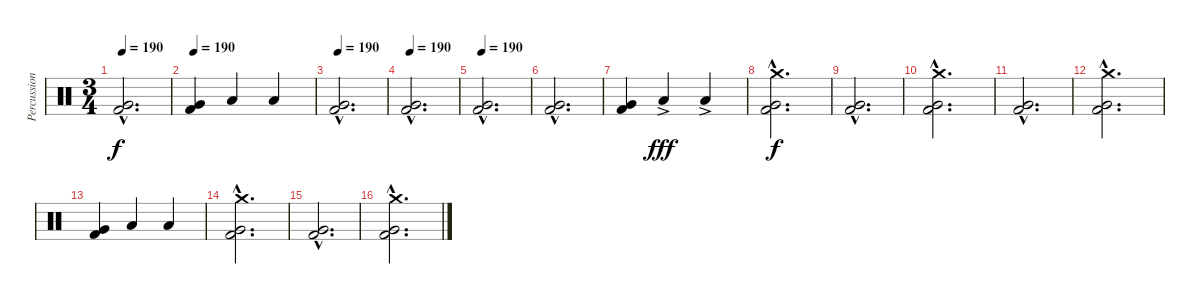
\track ("Percussion" "Percussion") {instrument percussion}
\staff {score}
\articulation defaults
\ts (3 4)
\tempo 190
\clef neutral
\ks c
("Very Low Tom (hit)"{hac} "Kick (hit) 2"{hac}).2{d dy f} |
\tempo 190
("Very Low Tom (hit)" "Kick (hit) 2").4 "Low Floor Tom (hit)".4 "Low Floor Tom (hit)".4 |
\tempo 190
("Very Low Tom (hit)"{hac} "Kick (hit) 2"{hac}).2{d} |
\tempo 190
("Very Low Tom (hit)"{hac} "Kick (hit) 2"{hac}).2{d} |
\tempo 190
("Very Low Tom (hit)"{hac} "Kick (hit) 2"{hac}).2{d} |
("Very Low Tom (hit)"{hac} "Kick (hit) 2"{hac}).2{d} |
("Very Low Tom (hit)" "Kick (hit) 2").4 "Low Floor Tom (hit)"{ac}.4{dy fff} "Low Floor Tom (hit)"{ac}.4 |
("Crash medium (hit)"{hac} "Very Low Tom (hit)"{hac} "Kick (hit) 2"{hac}).2{d dy f} |
("Very Low Tom (hit)"{hac} "Kick (hit) 2"{hac}).2{d} |
("Crash medium (hit)"{hac} "Very Low Tom (hit)"{hac} "Kick (hit) 2"{hac}).2{d} |
("Very Low Tom (hit)"{hac} "Kick (hit) 2"{hac}).2{d} |
("Crash medium (hit)"{hac} "Very Low Tom (hit)"{hac} "Kick (hit) 2"{hac}).2{d} |
("Very Low Tom (hit)" "Kick (hit) 2").4 "Low Floor Tom (hit)".4 "Low Floor Tom (hit)".4 |
("Crash medium (hit)"{hac} "Very Low Tom (hit)"{hac} "Kick (hit) 2"{hac}).2{d} |
("Very Low Tom (hit)"{hac} "Kick (hit) 2"{hac}).2{d} |
("Crash medium (hit)"{hac} "Very Low Tom (hit)"{hac} "Kick (hit) 2"{hac}).2{d}
